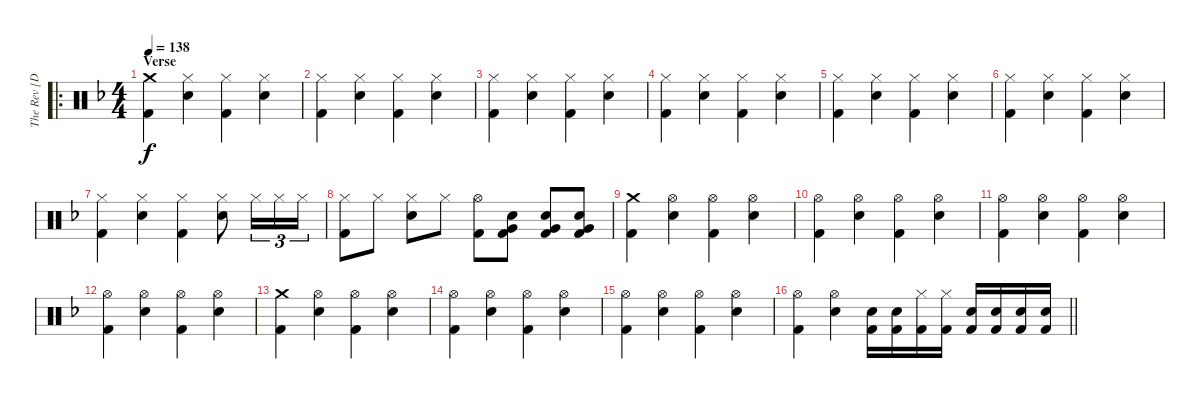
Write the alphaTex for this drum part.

\track ("The Rev [Drum]" "The Rev [D") {instrument percussion}
\staff {score}
\articulation defaults
\ro
\ts (4 4)
\section ("" "Verse")
\tempo 138
\clef neutral
\ks f
("Crash medium (hit)" "Kick (hit) 2").4{dy f} ("Hi-Hat (closed)" "Electric Snare (hit)").4 ("Hi-Hat (closed)" "Kick (hit) 2").4 ("Hi-Hat (closed)" "Electric Snare (hit)").4 |
("Hi-Hat (closed)" "Kick (hit) 2").4 ("Hi-Hat (closed)" "Electric Snare (hit)").4 ("Hi-Hat (closed)" "Kick (hit) 2").4 ("Hi-Hat (closed)" "Electric Snare (hit)").4 |
("Hi-Hat (closed)" "Kick (hit) 2").4 ("Hi-Hat (closed)" "Electric Snare (hit)").4 ("Hi-Hat (closed)" "Kick (hit) 2").4 ("Hi-Hat (closed)" "Electric Snare (hit)").4 |
("Hi-Hat (closed)" "Kick (hit) 2").4 ("Hi-Hat (closed)" "Electric Snare (hit)").4 ("Hi-Hat (closed)" "Kick (hit) 2").4 ("Hi-Hat (closed)" "Electric Snare (hit)").4 |
("Hi-Hat (closed)" "Kick (hit) 2").4 ("Hi-Hat (closed)" "Electric Snare (hit)").4 ("Hi-Hat (closed)" "Kick (hit) 2").4 ("Hi-Hat (closed)" "Electric Snare (hit)").4 |
("Hi-Hat (closed)" "Kick (hit) 2").4 ("Hi-Hat (closed)" "Electric Snare (hit)").4 ("Hi-Hat (closed)" "Kick (hit) 2").4 ("Hi-Hat (closed)" "Electric Snare (hit)").4 |
("Hi-Hat (closed)" "Kick (hit) 2").4 ("Hi-Hat (closed)" "Electric Snare (hit)").4 ("Hi-Hat (closed)" "Kick (hit) 2").4 ("Hi-Hat (closed)" "Electric Snare (hit)").8 "Hi-Hat (closed)".16{tu (3 2)} "Hi-Hat (closed)".16{tu (3 2)} "Hi-Hat (closed)".16{tu (3 2)} |
("Hi-Hat (closed)" "Kick (hit) 2").8 "Hi-Hat (closed)".8 ("Hi-Hat (closed)" "Electric Snare (hit)").8 "Hi-Hat (closed)".8 ("Hi-Hat (open)" "Kick (hit) 2").8 ("Very Low Tom (hit)" "Electric Snare (hit)" "Kick (hit) 2").8 ("Very Low Tom (hit)" "Electric Snare (hit)" "Kick (hit) 2").8 ("Very Low Tom (hit)" "Electric Snare (hit)" "Kick (hit) 2").8 |
("Crash medium (hit)" "Kick (hit) 2").4 ("Hi-Hat (open)" "Electric Snare (hit)").4 ("Hi-Hat (open)" "Kick (hit) 2").4 ("Hi-Hat (open)" "Electric Snare (hit)").4 |
("Hi-Hat (open)" "Kick (hit) 2").4 ("Hi-Hat (open)" "Electric Snare (hit)").4 ("Hi-Hat (open)" "Kick (hit) 2").4 ("Hi-Hat (open)" "Electric Snare (hit)").4 |
("Hi-Hat (open)" "Kick (hit) 2").4 ("Hi-Hat (open)" "Electric Snare (hit)").4 ("Hi-Hat (open)" "Kick (hit) 2").4 ("Hi-Hat (open)" "Electric Snare (hit)").4 |
("Hi-Hat (open)" "Kick (hit) 2").4 ("Hi-Hat (open)" "Electric Snare (hit)").4 ("Hi-Hat (open)" "Kick (hit) 2").4 ("Hi-Hat (open)" "Electric Snare (hit)").4 |
("Crash medium (hit)" "Kick (hit) 2").4 ("Hi-Hat (open)" "Electric Snare (hit)").4 ("Hi-Hat (open)" "Kick (hit) 2").4 ("Hi-Hat (open)" "Electric Snare (hit)").4 |
("Hi-Hat (open)" "Kick (hit) 2").4 ("Hi-Hat (open)" "Electric Snare (hit)").4 ("Hi-Hat (open)" "Kick (hit) 2").4 ("Hi-Hat (open)" "Electric Snare (hit)").4 |
("Hi-Hat (open)" "Kick (hit) 2").4 ("Hi-Hat (open)" "Electric Snare (hit)").4 ("Hi-Hat (open)" "Kick (hit) 2").4 ("Hi-Hat (open)" "Electric Snare (hit)").4 |
\barLineRight lightlight
("Hi-Hat (open)" "Kick (hit) 2").4 ("Hi-Hat (open)" "Electric Snare (hit)").4 ("Electric Snare (hit)" "Kick (hit) 2").16 ("Electric Snare (hit)" "Kick (hit) 2").16 ("Hi-Hat (closed)" "Kick (hit) 2").16 ("Hi-Hat (closed)" "Kick (hit) 2").16 ("Electric Snare (hit)" "Kick (hit) 2").16 ("Electric Snare (hit)" "Kick (hit) 2").16 ("Electric Snare (hit)" "Kick (hit) 2").16 ("Electric Snare (hit)" "Kick (hit) 2").16
